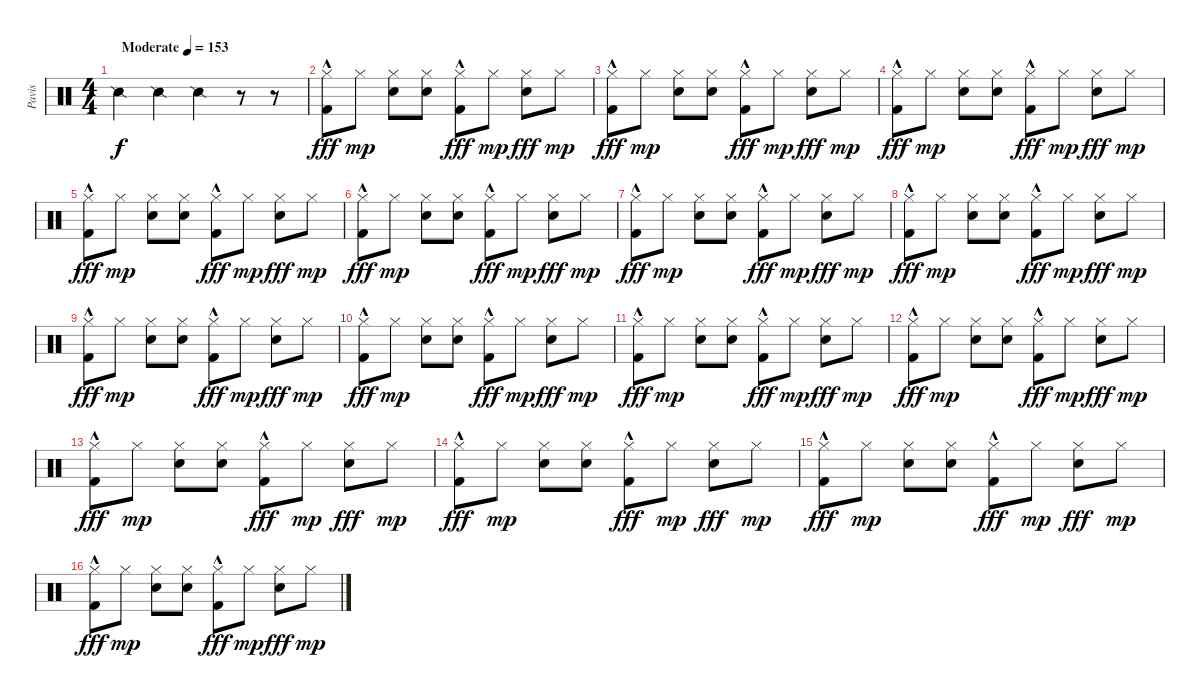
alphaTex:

\track ("Pavis" "Pavis") {instrument percussion}
\staff {score}
\articulation defaults
\ts (4 4)
\tempo (153 "Moderate")
\clef neutral
\ks c "Snare (side stick) 2".4{dy f} "Snare (side stick) 2".4 "Snare (side stick) 2".4
r.8 r.8 |
("Hi-Hat (closed)" "Kick (hit) 2"{hac}).8{dy fff} "Hi-Hat (closed)".8{dy mp} ("Hi-Hat (closed)" "Electric Snare (hit)").8 ("Hi-Hat (closed)" "Electric Snare (hit)").8 ("Hi-Hat (closed)" "Kick (hit) 2"{hac}).8{dy fff} "Hi-Hat (closed)".8{dy mp} ("Hi-Hat (closed)" "Electric Snare (hit)").8{dy fff} "Hi-Hat (closed)".8{dy mp} |
("Hi-Hat (closed)" "Kick (hit) 2"{hac}).8{dy fff} "Hi-Hat (closed)".8{dy mp} ("Hi-Hat (closed)" "Electric Snare (hit)").8 ("Hi-Hat (closed)" "Electric Snare (hit)").8 ("Hi-Hat (closed)" "Kick (hit) 2"{hac}).8{dy fff} "Hi-Hat (closed)".8{dy mp} ("Hi-Hat (closed)" "Electric Snare (hit)").8{dy fff} "Hi-Hat (closed)".8{dy mp} |
("Hi-Hat (closed)" "Kick (hit) 2"{hac}).8{dy fff} "Hi-Hat (closed)".8{dy mp} ("Hi-Hat (closed)" "Electric Snare (hit)").8 ("Hi-Hat (closed)" "Electric Snare (hit)").8 ("Hi-Hat (closed)" "Kick (hit) 2"{hac}).8{dy fff} "Hi-Hat (closed)".8{dy mp} ("Hi-Hat (closed)" "Electric Snare (hit)").8{dy fff} "Hi-Hat (closed)".8{dy mp} |
("Hi-Hat (closed)" "Kick (hit) 2"{hac}).8{dy fff} "Hi-Hat (closed)".8{dy mp} ("Hi-Hat (closed)" "Electric Snare (hit)").8 ("Hi-Hat (closed)" "Electric Snare (hit)").8 ("Hi-Hat (closed)" "Kick (hit) 2"{hac}).8{dy fff} "Hi-Hat (closed)".8{dy mp} ("Hi-Hat (closed)" "Electric Snare (hit)").8{dy fff} "Hi-Hat (closed)".8{dy mp} |
("Hi-Hat (closed)" "Kick (hit) 2"{hac}).8{dy fff} "Hi-Hat (closed)".8{dy mp} ("Hi-Hat (closed)" "Electric Snare (hit)").8 ("Hi-Hat (closed)" "Electric Snare (hit)").8 ("Hi-Hat (closed)" "Kick (hit) 2"{hac}).8{dy fff} "Hi-Hat (closed)".8{dy mp} ("Hi-Hat (closed)" "Electric Snare (hit)").8{dy fff} "Hi-Hat (closed)".8{dy mp} |
("Hi-Hat (closed)" "Kick (hit) 2"{hac}).8{dy fff} "Hi-Hat (closed)".8{dy mp} ("Hi-Hat (closed)" "Electric Snare (hit)").8 ("Hi-Hat (closed)" "Electric Snare (hit)").8 ("Hi-Hat (closed)" "Kick (hit) 2"{hac}).8{dy fff} "Hi-Hat (closed)".8{dy mp} ("Hi-Hat (closed)" "Electric Snare (hit)").8{dy fff} "Hi-Hat (closed)".8{dy mp} |
("Hi-Hat (closed)" "Kick (hit) 2"{hac}).8{dy fff} "Hi-Hat (closed)".8{dy mp} ("Hi-Hat (closed)" "Electric Snare (hit)").8 ("Hi-Hat (closed)" "Electric Snare (hit)").8 ("Hi-Hat (closed)" "Kick (hit) 2"{hac}).8{dy fff} "Hi-Hat (closed)".8{dy mp} ("Hi-Hat (closed)" "Electric Snare (hit)").8{dy fff} "Hi-Hat (closed)".8{dy mp} |
("Hi-Hat (closed)" "Kick (hit) 2"{hac}).8{dy fff} "Hi-Hat (closed)".8{dy mp} ("Hi-Hat (closed)" "Electric Snare (hit)").8 ("Hi-Hat (closed)" "Electric Snare (hit)").8 ("Hi-Hat (closed)" "Kick (hit) 2"{hac}).8{dy fff} "Hi-Hat (closed)".8{dy mp} ("Hi-Hat (closed)" "Electric Snare (hit)").8{dy fff} "Hi-Hat (closed)".8{dy mp} |
("Hi-Hat (closed)" "Kick (hit) 2"{hac}).8{dy fff} "Hi-Hat (closed)".8{dy mp} ("Hi-Hat (closed)" "Electric Snare (hit)").8 ("Hi-Hat (closed)" "Electric Snare (hit)").8 ("Hi-Hat (closed)" "Kick (hit) 2"{hac}).8{dy fff} "Hi-Hat (closed)".8{dy mp} ("Hi-Hat (closed)" "Electric Snare (hit)").8{dy fff} "Hi-Hat (closed)".8{dy mp} |
("Hi-Hat (closed)" "Kick (hit) 2"{hac}).8{dy fff} "Hi-Hat (closed)".8{dy mp} ("Hi-Hat (closed)" "Electric Snare (hit)").8 ("Hi-Hat (closed)" "Electric Snare (hit)").8 ("Hi-Hat (closed)" "Kick (hit) 2"{hac}).8{dy fff} "Hi-Hat (closed)".8{dy mp} ("Hi-Hat (closed)" "Electric Snare (hit)").8{dy fff} "Hi-Hat (closed)".8{dy mp} |
("Hi-Hat (closed)" "Kick (hit) 2"{hac}).8{dy fff} "Hi-Hat (closed)".8{dy mp} ("Hi-Hat (closed)" "Electric Snare (hit)").8 ("Hi-Hat (closed)" "Electric Snare (hit)").8 ("Hi-Hat (closed)" "Kick (hit) 2"{hac}).8{dy fff} "Hi-Hat (closed)".8{dy mp} ("Hi-Hat (closed)" "Electric Snare (hit)").8{dy fff} "Hi-Hat (closed)".8{dy mp} |
("Hi-Hat (closed)" "Kick (hit) 2"{hac}).8{dy fff} "Hi-Hat (closed)".8{dy mp} ("Hi-Hat (closed)" "Electric Snare (hit)").8 ("Hi-Hat (closed)" "Electric Snare (hit)").8 ("Hi-Hat (closed)" "Kick (hit) 2"{hac}).8{dy fff} "Hi-Hat (closed)".8{dy mp} ("Hi-Hat (closed)" "Electric Snare (hit)").8{dy fff} "Hi-Hat (closed)".8{dy mp} |
("Hi-Hat (closed)" "Kick (hit) 2"{hac}).8{dy fff} "Hi-Hat (closed)".8{dy mp} ("Hi-Hat (closed)" "Electric Snare (hit)").8 ("Hi-Hat (closed)" "Electric Snare (hit)").8 ("Hi-Hat (closed)" "Kick (hit) 2"{hac}).8{dy fff} "Hi-Hat (closed)".8{dy mp} ("Hi-Hat (closed)" "Electric Snare (hit)").8{dy fff} "Hi-Hat (closed)".8{dy mp} |
("Hi-Hat (closed)" "Kick (hit) 2"{hac}).8{dy fff} "Hi-Hat (closed)".8{dy mp} ("Hi-Hat (closed)" "Electric Snare (hit)").8 ("Hi-Hat (closed)" "Electric Snare (hit)").8 ("Hi-Hat (closed)" "Kick (hit) 2"{hac}).8{dy fff} "Hi-Hat (closed)".8{dy mp} ("Hi-Hat (closed)" "Electric Snare (hit)").8{dy fff} "Hi-Hat (closed)".8{dy mp} |
("Hi-Hat (closed)" "Kick (hit) 2"{hac}).8{dy fff} "Hi-Hat (closed)".8{dy mp} ("Hi-Hat (closed)" "Electric Snare (hit)").8 ("Hi-Hat (closed)" "Electric Snare (hit)").8 ("Hi-Hat (closed)" "Kick (hit) 2"{hac}).8{dy fff} "Hi-Hat (closed)".8{dy mp} ("Hi-Hat (closed)" "Electric Snare (hit)").8{dy fff} "Hi-Hat (closed)".8{dy mp}
